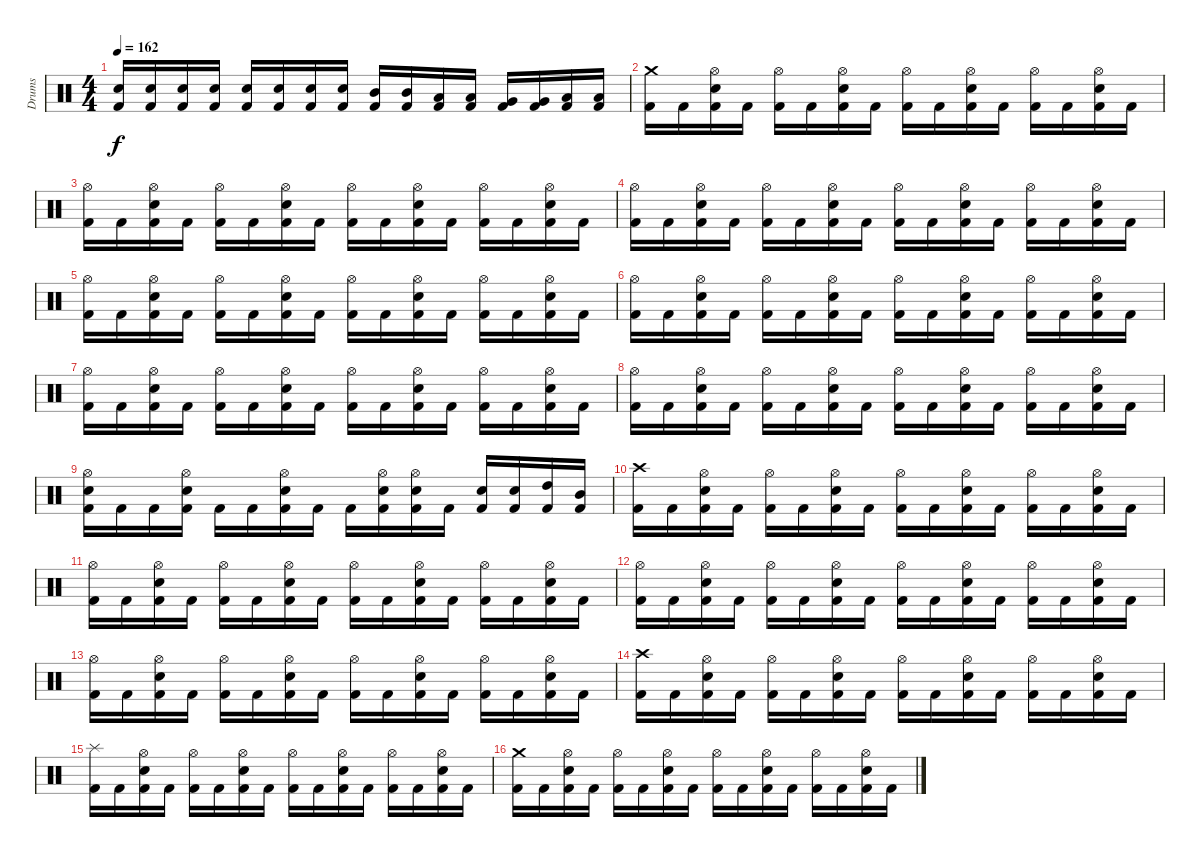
\track ("Drums" "Drums") {instrument percussion}
\staff {score}
\articulation defaults
\ts (4 4)
\tempo 162
\clef neutral
\ks c
("Kick (hit) 2" "Electric Snare (hit)").16{dy f} ("Kick (hit) 2" "Electric Snare (hit)").16 ("Kick (hit) 2" "Electric Snare (hit)").16 ("Kick (hit) 2" "Electric Snare (hit)").16 ("Kick (hit) 2" "Electric Snare (hit)").16 ("Kick (hit) 2" "Electric Snare (hit)").16 ("Kick (hit) 2" "Electric Snare (hit)").16 ("Kick (hit) 2" "Electric Snare (hit)").16 ("Kick (hit) 2" "Mid Tom (hit)").16 ("Kick (hit) 2" "Mid Tom (hit)").16 ("Kick (hit) 2" "Low Tom (hit)").16 ("Kick (hit) 2" "Low Tom (hit)").16 ("Kick (hit) 2" "Very Low Tom (hit)").16 ("Kick (hit) 2" "Very Low Tom (hit)").16 ("Kick (hit) 2" "Low Floor Tom (hit)").16 ("Kick (hit) 2" "Low Floor Tom (hit)").16 |
\section ("" "")
("Kick (hit) 2" "Crash medium (hit)").16 "Kick (hit) 2".16 ("Kick (hit) 2" "Electric Snare (hit)" "Hi-Hat (open)").16 "Kick (hit) 2".16 ("Kick (hit) 2" "Hi-Hat (open)").16 "Kick (hit) 2".16 ("Kick (hit) 2" "Electric Snare (hit)" "Hi-Hat (open)").16 "Kick (hit) 2".16 ("Kick (hit) 2" "Hi-Hat (open)").16 "Kick (hit) 2".16 ("Kick (hit) 2" "Electric Snare (hit)" "Hi-Hat (open)").16 "Kick (hit) 2".16 ("Kick (hit) 2" "Hi-Hat (open)").16 "Kick (hit) 2".16 ("Kick (hit) 2" "Electric Snare (hit)" "Hi-Hat (open)").16 "Kick (hit) 2".16 |
("Kick (hit) 2" "Hi-Hat (open)").16 "Kick (hit) 2".16 ("Kick (hit) 2" "Electric Snare (hit)" "Hi-Hat (open)").16 "Kick (hit) 2".16 ("Kick (hit) 2" "Hi-Hat (open)").16 "Kick (hit) 2".16 ("Kick (hit) 2" "Electric Snare (hit)" "Hi-Hat (open)").16 "Kick (hit) 2".16 ("Kick (hit) 2" "Hi-Hat (open)").16 "Kick (hit) 2".16 ("Kick (hit) 2" "Electric Snare (hit)" "Hi-Hat (open)").16 "Kick (hit) 2".16 ("Kick (hit) 2" "Hi-Hat (open)").16 "Kick (hit) 2".16 ("Kick (hit) 2" "Electric Snare (hit)" "Hi-Hat (open)").16 "Kick (hit) 2".16 |
("Kick (hit) 2" "Hi-Hat (open)").16 "Kick (hit) 2".16 ("Kick (hit) 2" "Electric Snare (hit)" "Hi-Hat (open)").16 "Kick (hit) 2".16 ("Kick (hit) 2" "Hi-Hat (open)").16 "Kick (hit) 2".16 ("Kick (hit) 2" "Electric Snare (hit)" "Hi-Hat (open)").16 "Kick (hit) 2".16 ("Kick (hit) 2" "Hi-Hat (open)").16 "Kick (hit) 2".16 ("Kick (hit) 2" "Electric Snare (hit)" "Hi-Hat (open)").16 "Kick (hit) 2".16 ("Kick (hit) 2" "Hi-Hat (open)").16 "Kick (hit) 2".16 ("Kick (hit) 2" "Electric Snare (hit)" "Hi-Hat (open)").16 "Kick (hit) 2".16 |
("Kick (hit) 2" "Hi-Hat (open)").16 "Kick (hit) 2".16 ("Kick (hit) 2" "Electric Snare (hit)" "Hi-Hat (open)").16 "Kick (hit) 2".16 ("Kick (hit) 2" "Hi-Hat (open)").16 "Kick (hit) 2".16 ("Kick (hit) 2" "Electric Snare (hit)" "Hi-Hat (open)").16 "Kick (hit) 2".16 ("Kick (hit) 2" "Hi-Hat (open)").16 "Kick (hit) 2".16 ("Kick (hit) 2" "Electric Snare (hit)" "Hi-Hat (open)").16 "Kick (hit) 2".16 ("Kick (hit) 2" "Hi-Hat (open)").16 "Kick (hit) 2".16 ("Kick (hit) 2" "Electric Snare (hit)" "Hi-Hat (open)").16 "Kick (hit) 2".16 |
("Kick (hit) 2" "Hi-Hat (open)").16 "Kick (hit) 2".16 ("Kick (hit) 2" "Electric Snare (hit)" "Hi-Hat (open)").16 "Kick (hit) 2".16 ("Kick (hit) 2" "Hi-Hat (open)").16 "Kick (hit) 2".16 ("Kick (hit) 2" "Electric Snare (hit)" "Hi-Hat (open)").16 "Kick (hit) 2".16 ("Kick (hit) 2" "Hi-Hat (open)").16 "Kick (hit) 2".16 ("Kick (hit) 2" "Electric Snare (hit)" "Hi-Hat (open)").16 "Kick (hit) 2".16 ("Kick (hit) 2" "Hi-Hat (open)").16 "Kick (hit) 2".16 ("Kick (hit) 2" "Electric Snare (hit)" "Hi-Hat (open)").16 "Kick (hit) 2".16 |
("Kick (hit) 2" "Hi-Hat (open)").16 "Kick (hit) 2".16 ("Kick (hit) 2" "Electric Snare (hit)" "Hi-Hat (open)").16 "Kick (hit) 2".16 ("Kick (hit) 2" "Hi-Hat (open)").16 "Kick (hit) 2".16 ("Kick (hit) 2" "Electric Snare (hit)" "Hi-Hat (open)").16 "Kick (hit) 2".16 ("Kick (hit) 2" "Hi-Hat (open)").16 "Kick (hit) 2".16 ("Kick (hit) 2" "Electric Snare (hit)" "Hi-Hat (open)").16 "Kick (hit) 2".16 ("Kick (hit) 2" "Hi-Hat (open)").16 "Kick (hit) 2".16 ("Kick (hit) 2" "Electric Snare (hit)" "Hi-Hat (open)").16 "Kick (hit) 2".16 |
("Kick (hit) 2" "Hi-Hat (open)").16 "Kick (hit) 2".16 ("Kick (hit) 2" "Electric Snare (hit)" "Hi-Hat (open)").16 "Kick (hit) 2".16 ("Kick (hit) 2" "Hi-Hat (open)").16 "Kick (hit) 2".16 ("Kick (hit) 2" "Electric Snare (hit)" "Hi-Hat (open)").16 "Kick (hit) 2".16 ("Kick (hit) 2" "Hi-Hat (open)").16 "Kick (hit) 2".16 ("Kick (hit) 2" "Electric Snare (hit)" "Hi-Hat (open)").16 "Kick (hit) 2".16 ("Kick (hit) 2" "Hi-Hat (open)").16 "Kick (hit) 2".16 ("Kick (hit) 2" "Electric Snare (hit)" "Hi-Hat (open)").16 "Kick (hit) 2".16 |
("Kick (hit) 2" "Electric Snare (hit)" "Hi-Hat (open)").16 "Kick (hit) 2".16 "Kick (hit) 2".16 ("Kick (hit) 2" "Electric Snare (hit)" "Hi-Hat (open)").16 "Kick (hit) 2".16 "Kick (hit) 2".16 ("Kick (hit) 2" "Electric Snare (hit)" "Hi-Hat (open)").16 "Kick (hit) 2".16 "Kick (hit) 2".16 ("Kick (hit) 2" "Electric Snare (hit)" "Hi-Hat (open)").16 ("Kick (hit) 2" "Electric Snare (hit)" "Hi-Hat (open)").16 "Kick (hit) 2".16 ("Kick (hit) 2" "Electric Snare (hit)").16 ("Kick (hit) 2" "Electric Snare (hit)").16 ("Kick (hit) 2" "High Tom (hit)").16 ("Kick (hit) 2" "Mid Tom (hit)").16 |
("Kick (hit) 2" "Crash high (hit)").16 "Kick (hit) 2".16 ("Kick (hit) 2" "Electric Snare (hit)" "Hi-Hat (open)").16 "Kick (hit) 2".16 ("Kick (hit) 2" "Hi-Hat (open)").16 "Kick (hit) 2".16 ("Kick (hit) 2" "Electric Snare (hit)" "Hi-Hat (open)").16 "Kick (hit) 2".16 ("Kick (hit) 2" "Hi-Hat (open)").16 "Kick (hit) 2".16 ("Kick (hit) 2" "Electric Snare (hit)" "Hi-Hat (open)").16 "Kick (hit) 2".16 ("Kick (hit) 2" "Hi-Hat (open)").16 "Kick (hit) 2".16 ("Kick (hit) 2" "Electric Snare (hit)" "Hi-Hat (open)").16 "Kick (hit) 2".16 |
("Kick (hit) 2" "Hi-Hat (open)").16 "Kick (hit) 2".16 ("Kick (hit) 2" "Electric Snare (hit)" "Hi-Hat (open)").16 "Kick (hit) 2".16 ("Kick (hit) 2" "Hi-Hat (open)").16 "Kick (hit) 2".16 ("Kick (hit) 2" "Electric Snare (hit)" "Hi-Hat (open)").16 "Kick (hit) 2".16 ("Kick (hit) 2" "Hi-Hat (open)").16 "Kick (hit) 2".16 ("Kick (hit) 2" "Electric Snare (hit)" "Hi-Hat (open)").16 "Kick (hit) 2".16 ("Kick (hit) 2" "Hi-Hat (open)").16 "Kick (hit) 2".16 ("Kick (hit) 2" "Electric Snare (hit)" "Hi-Hat (open)").16 "Kick (hit) 2".16 |
("Kick (hit) 2" "Hi-Hat (open)").16 "Kick (hit) 2".16 ("Kick (hit) 2" "Electric Snare (hit)" "Hi-Hat (open)").16 "Kick (hit) 2".16 ("Kick (hit) 2" "Hi-Hat (open)").16 "Kick (hit) 2".16 ("Kick (hit) 2" "Electric Snare (hit)" "Hi-Hat (open)").16 "Kick (hit) 2".16 ("Kick (hit) 2" "Hi-Hat (open)").16 "Kick (hit) 2".16 ("Kick (hit) 2" "Electric Snare (hit)" "Hi-Hat (open)").16 "Kick (hit) 2".16 ("Kick (hit) 2" "Hi-Hat (open)").16 "Kick (hit) 2".16 ("Kick (hit) 2" "Electric Snare (hit)" "Hi-Hat (open)").16 "Kick (hit) 2".16 |
("Kick (hit) 2" "Hi-Hat (open)").16 "Kick (hit) 2".16 ("Kick (hit) 2" "Electric Snare (hit)" "Hi-Hat (open)").16 "Kick (hit) 2".16 ("Kick (hit) 2" "Hi-Hat (open)").16 "Kick (hit) 2".16 ("Kick (hit) 2" "Electric Snare (hit)" "Hi-Hat (open)").16 "Kick (hit) 2".16 ("Kick (hit) 2" "Hi-Hat (open)").16 "Kick (hit) 2".16 ("Kick (hit) 2" "Electric Snare (hit)" "Hi-Hat (open)").16 "Kick (hit) 2".16 ("Kick (hit) 2" "Hi-Hat (open)").16 "Kick (hit) 2".16 ("Kick (hit) 2" "Electric Snare (hit)" "Hi-Hat (open)").16 "Kick (hit) 2".16 |
("Kick (hit) 2" "Crash high (hit)").16 "Kick (hit) 2".16 ("Kick (hit) 2" "Electric Snare (hit)" "Hi-Hat (open)").16 "Kick (hit) 2".16 ("Kick (hit) 2" "Hi-Hat (open)").16 "Kick (hit) 2".16 ("Kick (hit) 2" "Electric Snare (hit)" "Hi-Hat (open)").16 "Kick (hit) 2".16 ("Kick (hit) 2" "Hi-Hat (open)").16 "Kick (hit) 2".16 ("Kick (hit) 2" "Electric Snare (hit)" "Hi-Hat (open)").16 "Kick (hit) 2".16 ("Kick (hit) 2" "Hi-Hat (open)").16 "Kick (hit) 2".16 ("Kick (hit) 2" "Electric Snare (hit)" "Hi-Hat (open)").16 "Kick (hit) 2".16 |
("Kick (hit) 2" "Splash (hit)").16 "Kick (hit) 2".16 ("Kick (hit) 2" "Electric Snare (hit)" "Hi-Hat (open)").16 "Kick (hit) 2".16 ("Kick (hit) 2" "Hi-Hat (open)").16 "Kick (hit) 2".16 ("Kick (hit) 2" "Electric Snare (hit)" "Hi-Hat (open)").16 "Kick (hit) 2".16 ("Kick (hit) 2" "Hi-Hat (open)").16 "Kick (hit) 2".16 ("Kick (hit) 2" "Electric Snare (hit)" "Hi-Hat (open)").16 "Kick (hit) 2".16 ("Kick (hit) 2" "Hi-Hat (open)").16 "Kick (hit) 2".16 ("Kick (hit) 2" "Electric Snare (hit)" "Hi-Hat (open)").16 "Kick (hit) 2".16 |
("Kick (hit) 2" "Crash medium (hit)").16 "Kick (hit) 2".16 ("Kick (hit) 2" "Electric Snare (hit)" "Hi-Hat (open)").16 "Kick (hit) 2".16 ("Kick (hit) 2" "Hi-Hat (open)").16 "Kick (hit) 2".16 ("Kick (hit) 2" "Electric Snare (hit)" "Hi-Hat (open)").16 "Kick (hit) 2".16 ("Kick (hit) 2" "Hi-Hat (open)").16 "Kick (hit) 2".16 ("Kick (hit) 2" "Electric Snare (hit)" "Hi-Hat (open)").16 "Kick (hit) 2".16 ("Kick (hit) 2" "Hi-Hat (open)").16 "Kick (hit) 2".16 ("Kick (hit) 2" "Electric Snare (hit)" "Hi-Hat (open)").16 "Kick (hit) 2".16
